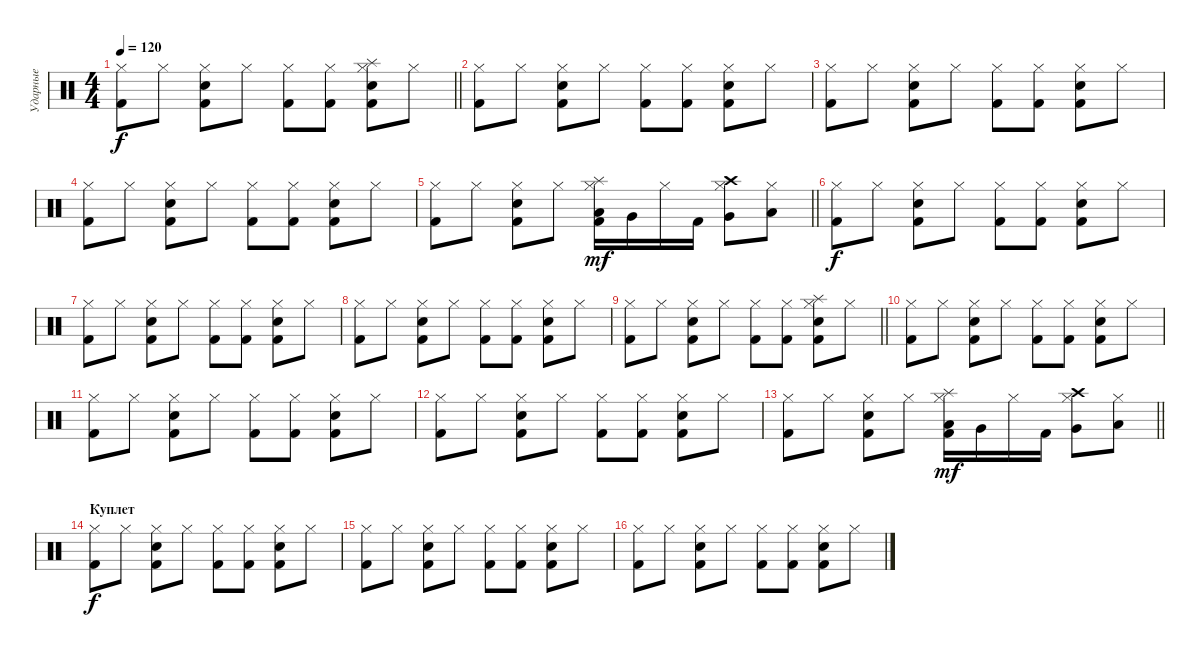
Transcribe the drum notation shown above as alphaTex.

\track ("Ударные" "Ударные") {solo instrument percussion}
\staff {score}
\articulation defaults
\ts (4 4)
\tempo 120
\clef neutral
\barLineRight lightlight
\ks c
("Hi-Hat (closed)" "Kick (hit) 2").8{dy f} "Hi-Hat (closed)".8 ("Hi-Hat (closed)" "Kick (hit) 2" "Electric Snare (hit)").8 "Hi-Hat (closed)".8 ("Hi-Hat (closed)" "Kick (hit) 2").8 ("Hi-Hat (closed)" "Kick (hit) 2").8 ("Hi-Hat (closed)" "Kick (hit) 2" "Electric Snare (hit)" "Splash (hit)").8 "Hi-Hat (closed)".8 |
("Hi-Hat (closed)" "Kick (hit) 2").8 "Hi-Hat (closed)".8 ("Hi-Hat (closed)" "Kick (hit) 2" "Electric Snare (hit)").8 "Hi-Hat (closed)".8 ("Hi-Hat (closed)" "Kick (hit) 2").8 ("Hi-Hat (closed)" "Kick (hit) 2").8 ("Hi-Hat (closed)" "Kick (hit) 2" "Electric Snare (hit)").8 "Hi-Hat (closed)".8 |
("Hi-Hat (closed)" "Kick (hit) 2").8 "Hi-Hat (closed)".8 ("Hi-Hat (closed)" "Kick (hit) 2" "Electric Snare (hit)").8 "Hi-Hat (closed)".8 ("Hi-Hat (closed)" "Kick (hit) 2").8 ("Hi-Hat (closed)" "Kick (hit) 2").8 ("Hi-Hat (closed)" "Kick (hit) 2" "Electric Snare (hit)").8 "Hi-Hat (closed)".8 |
("Hi-Hat (closed)" "Kick (hit) 2").8 "Hi-Hat (closed)".8 ("Hi-Hat (closed)" "Kick (hit) 2" "Electric Snare (hit)").8 "Hi-Hat (closed)".8 ("Hi-Hat (closed)" "Kick (hit) 2").8 ("Hi-Hat (closed)" "Kick (hit) 2").8 ("Hi-Hat (closed)" "Kick (hit) 2" "Electric Snare (hit)").8 "Hi-Hat (closed)".8 |
\barLineRight lightlight
("Hi-Hat (closed)" "Kick (hit) 2").8 "Hi-Hat (closed)".8 ("Hi-Hat (closed)" "Kick (hit) 2" "Electric Snare (hit)").8 "Hi-Hat (closed)".8 ("Low Tom (hit)" "Hi-Hat (closed)" "Kick (hit) 2" "Splash (hit)").16{dy mf} "Very Low Tom (hit)".16 "Hi-Hat (closed)".16 "Kick (hit) 2".16 ("Very Low Tom (hit)" "Hi-Hat (closed)" "Crash high (hit)").8 ("Low Floor Tom (hit)" "Hi-Hat (closed)").8 |
("Hi-Hat (closed)" "Kick (hit) 2").8{dy f} "Hi-Hat (closed)".8 ("Hi-Hat (closed)" "Kick (hit) 2" "Electric Snare (hit)").8 "Hi-Hat (closed)".8 ("Hi-Hat (closed)" "Kick (hit) 2").8 ("Hi-Hat (closed)" "Kick (hit) 2").8 ("Hi-Hat (closed)" "Kick (hit) 2" "Electric Snare (hit)").8 "Hi-Hat (closed)".8 |
("Hi-Hat (closed)" "Kick (hit) 2").8 "Hi-Hat (closed)".8 ("Hi-Hat (closed)" "Kick (hit) 2" "Electric Snare (hit)").8 "Hi-Hat (closed)".8 ("Hi-Hat (closed)" "Kick (hit) 2").8 ("Hi-Hat (closed)" "Kick (hit) 2").8 ("Hi-Hat (closed)" "Kick (hit) 2" "Electric Snare (hit)").8 "Hi-Hat (closed)".8 |
("Hi-Hat (closed)" "Kick (hit) 2").8 "Hi-Hat (closed)".8 ("Hi-Hat (closed)" "Kick (hit) 2" "Electric Snare (hit)").8 "Hi-Hat (closed)".8 ("Hi-Hat (closed)" "Kick (hit) 2").8 ("Hi-Hat (closed)" "Kick (hit) 2").8 ("Hi-Hat (closed)" "Kick (hit) 2" "Electric Snare (hit)").8 "Hi-Hat (closed)".8 |
\barLineRight lightlight
("Hi-Hat (closed)" "Kick (hit) 2").8 "Hi-Hat (closed)".8 ("Hi-Hat (closed)" "Kick (hit) 2" "Electric Snare (hit)").8 "Hi-Hat (closed)".8 ("Hi-Hat (closed)" "Kick (hit) 2").8 ("Hi-Hat (closed)" "Kick (hit) 2").8 ("Hi-Hat (closed)" "Kick (hit) 2" "Electric Snare (hit)" "Splash (hit)").8 "Hi-Hat (closed)".8 |
("Hi-Hat (closed)" "Kick (hit) 2").8 "Hi-Hat (closed)".8 ("Hi-Hat (closed)" "Kick (hit) 2" "Electric Snare (hit)").8 "Hi-Hat (closed)".8 ("Hi-Hat (closed)" "Kick (hit) 2").8 ("Hi-Hat (closed)" "Kick (hit) 2").8 ("Hi-Hat (closed)" "Kick (hit) 2" "Electric Snare (hit)").8 "Hi-Hat (closed)".8 |
("Hi-Hat (closed)" "Kick (hit) 2").8 "Hi-Hat (closed)".8 ("Hi-Hat (closed)" "Kick (hit) 2" "Electric Snare (hit)").8 "Hi-Hat (closed)".8 ("Hi-Hat (closed)" "Kick (hit) 2").8 ("Hi-Hat (closed)" "Kick (hit) 2").8 ("Hi-Hat (closed)" "Kick (hit) 2" "Electric Snare (hit)").8 "Hi-Hat (closed)".8 |
("Hi-Hat (closed)" "Kick (hit) 2").8 "Hi-Hat (closed)".8 ("Hi-Hat (closed)" "Kick (hit) 2" "Electric Snare (hit)").8 "Hi-Hat (closed)".8 ("Hi-Hat (closed)" "Kick (hit) 2").8 ("Hi-Hat (closed)" "Kick (hit) 2").8 ("Hi-Hat (closed)" "Kick (hit) 2" "Electric Snare (hit)").8 "Hi-Hat (closed)".8 |
\barLineRight lightlight
("Hi-Hat (closed)" "Kick (hit) 2").8 "Hi-Hat (closed)".8 ("Hi-Hat (closed)" "Kick (hit) 2" "Electric Snare (hit)").8 "Hi-Hat (closed)".8 ("Low Tom (hit)" "Hi-Hat (closed)" "Kick (hit) 2" "Splash (hit)").16{dy mf} "Very Low Tom (hit)".16 "Hi-Hat (closed)".16 "Kick (hit) 2".16 ("Very Low Tom (hit)" "Hi-Hat (closed)" "Crash high (hit)").8 ("Low Floor Tom (hit)" "Hi-Hat (closed)").8 |
\section ("" "Куплет")
("Hi-Hat (closed)" "Kick (hit) 2").8{dy f} "Hi-Hat (closed)".8 ("Hi-Hat (closed)" "Kick (hit) 2" "Electric Snare (hit)").8 "Hi-Hat (closed)".8 ("Hi-Hat (closed)" "Kick (hit) 2").8 ("Hi-Hat (closed)" "Kick (hit) 2").8 ("Hi-Hat (closed)" "Kick (hit) 2" "Electric Snare (hit)").8 "Hi-Hat (closed)".8 |
("Hi-Hat (closed)" "Kick (hit) 2").8 "Hi-Hat (closed)".8 ("Hi-Hat (closed)" "Kick (hit) 2" "Electric Snare (hit)").8 "Hi-Hat (closed)".8 ("Hi-Hat (closed)" "Kick (hit) 2").8 ("Hi-Hat (closed)" "Kick (hit) 2").8 ("Hi-Hat (closed)" "Kick (hit) 2" "Electric Snare (hit)").8 "Hi-Hat (closed)".8 |
("Hi-Hat (closed)" "Kick (hit) 2").8 "Hi-Hat (closed)".8 ("Hi-Hat (closed)" "Kick (hit) 2" "Electric Snare (hit)").8 "Hi-Hat (closed)".8 ("Hi-Hat (closed)" "Kick (hit) 2").8 ("Hi-Hat (closed)" "Kick (hit) 2").8 ("Hi-Hat (closed)" "Kick (hit) 2" "Electric Snare (hit)").8 "Hi-Hat (closed)".8
